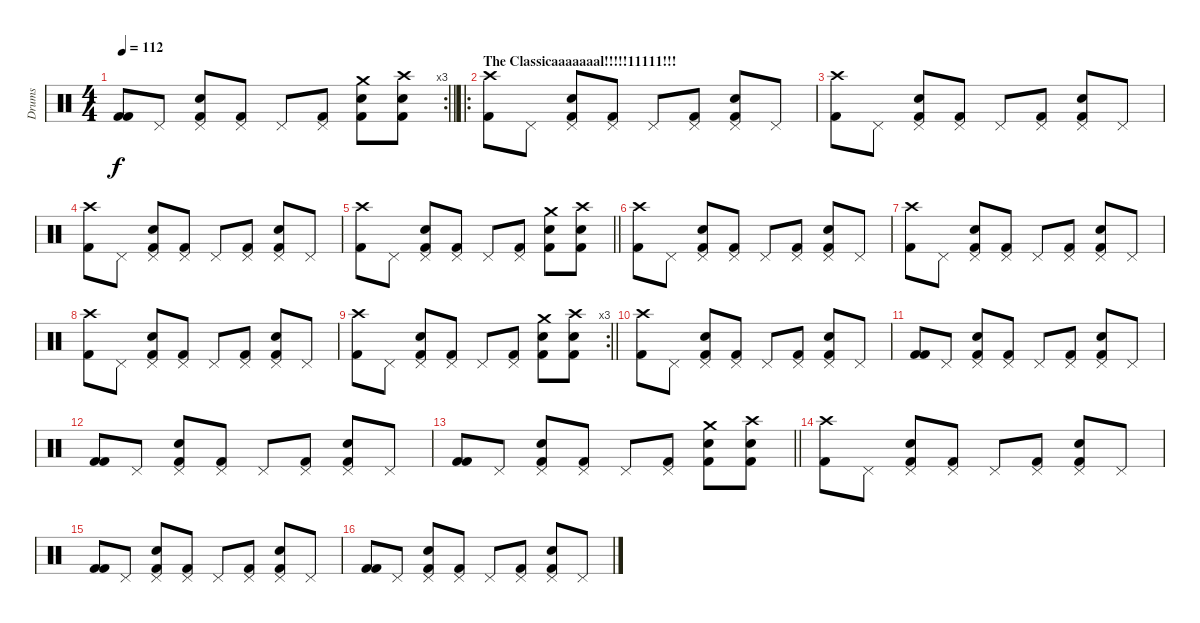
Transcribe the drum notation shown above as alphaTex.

\track ("Drums" "Drums") {instrument percussion}
\staff {score}
\articulation defaults
\rc 3
\ts (4 4)
\tempo 112
\clef neutral
\barLineRight lightlight
\ks c
("Kick (hit) 2" "Kick (hit) 2").8{dy f} "Pedal Hi-Hat (hit)".8 ("Pedal Hi-Hat (hit)" "Snare (hit) 2" "Kick (hit) 2").8 ("Pedal Hi-Hat (hit)" "Kick (hit) 2").8 "Pedal Hi-Hat (hit)".8 ("Pedal Hi-Hat (hit)" "Kick (hit) 2").8 ("Kick (hit) 2" "Snare (hit) 2" "Crash medium (hit)").8 ("Kick (hit) 2" "Snare (hit) 2" "Crash high (hit)").8 |
\ro
\section ("" "The Classicaaaaaaal!!!!!11111!!!")
("Kick (hit) 2" "Crash high (hit)").8 "Pedal Hi-Hat (hit)".8 ("Pedal Hi-Hat (hit)" "Snare (hit) 2" "Kick (hit) 2").8 ("Pedal Hi-Hat (hit)" "Kick (hit) 2").8 "Pedal Hi-Hat (hit)".8 ("Pedal Hi-Hat (hit)" "Kick (hit) 2").8 ("Pedal Hi-Hat (hit)" "Snare (hit) 2" "Kick (hit) 2").8 "Pedal Hi-Hat (hit)".8 |
("Kick (hit) 2" "Crash high (hit)").8 "Pedal Hi-Hat (hit)".8 ("Pedal Hi-Hat (hit)" "Snare (hit) 2" "Kick (hit) 2").8 ("Pedal Hi-Hat (hit)" "Kick (hit) 2").8 "Pedal Hi-Hat (hit)".8 ("Pedal Hi-Hat (hit)" "Kick (hit) 2").8 ("Pedal Hi-Hat (hit)" "Snare (hit) 2" "Kick (hit) 2").8 "Pedal Hi-Hat (hit)".8 |
("Kick (hit) 2" "Crash high (hit)").8 "Pedal Hi-Hat (hit)".8 ("Pedal Hi-Hat (hit)" "Snare (hit) 2" "Kick (hit) 2").8 ("Pedal Hi-Hat (hit)" "Kick (hit) 2").8 "Pedal Hi-Hat (hit)".8 ("Pedal Hi-Hat (hit)" "Kick (hit) 2").8 ("Pedal Hi-Hat (hit)" "Snare (hit) 2" "Kick (hit) 2").8 "Pedal Hi-Hat (hit)".8 |
\barLineRight lightlight
("Kick (hit) 2" "Crash high (hit)").8 "Pedal Hi-Hat (hit)".8 ("Pedal Hi-Hat (hit)" "Snare (hit) 2" "Kick (hit) 2").8 ("Pedal Hi-Hat (hit)" "Kick (hit) 2").8 "Pedal Hi-Hat (hit)".8 ("Pedal Hi-Hat (hit)" "Kick (hit) 2").8 ("Kick (hit) 2" "Snare (hit) 2" "Crash medium (hit)").8 ("Kick (hit) 2" "Snare (hit) 2" "Crash high (hit)").8 |
("Kick (hit) 2" "Crash high (hit)").8 "Pedal Hi-Hat (hit)".8 ("Pedal Hi-Hat (hit)" "Snare (hit) 2" "Kick (hit) 2").8 ("Pedal Hi-Hat (hit)" "Kick (hit) 2").8 "Pedal Hi-Hat (hit)".8 ("Pedal Hi-Hat (hit)" "Kick (hit) 2").8 ("Pedal Hi-Hat (hit)" "Snare (hit) 2" "Kick (hit) 2").8 "Pedal Hi-Hat (hit)".8 |
("Kick (hit) 2" "Crash high (hit)").8 "Pedal Hi-Hat (hit)".8 ("Pedal Hi-Hat (hit)" "Snare (hit) 2" "Kick (hit) 2").8 ("Pedal Hi-Hat (hit)" "Kick (hit) 2").8 "Pedal Hi-Hat (hit)".8 ("Pedal Hi-Hat (hit)" "Kick (hit) 2").8 ("Pedal Hi-Hat (hit)" "Snare (hit) 2" "Kick (hit) 2").8 "Pedal Hi-Hat (hit)".8 |
("Kick (hit) 2" "Crash high (hit)").8 "Pedal Hi-Hat (hit)".8 ("Pedal Hi-Hat (hit)" "Snare (hit) 2" "Kick (hit) 2").8 ("Pedal Hi-Hat (hit)" "Kick (hit) 2").8 "Pedal Hi-Hat (hit)".8 ("Pedal Hi-Hat (hit)" "Kick (hit) 2").8 ("Pedal Hi-Hat (hit)" "Snare (hit) 2" "Kick (hit) 2").8 "Pedal Hi-Hat (hit)".8 |
\rc 3
\barLineRight lightlight
("Kick (hit) 2" "Crash high (hit)").8 "Pedal Hi-Hat (hit)".8 ("Pedal Hi-Hat (hit)" "Snare (hit) 2" "Kick (hit) 2").8 ("Pedal Hi-Hat (hit)" "Kick (hit) 2").8 "Pedal Hi-Hat (hit)".8 ("Pedal Hi-Hat (hit)" "Kick (hit) 2").8 ("Kick (hit) 2" "Snare (hit) 2" "Crash medium (hit)").8 ("Kick (hit) 2" "Snare (hit) 2" "Crash high (hit)").8 |
("Kick (hit) 2" "Crash high (hit)").8 "Pedal Hi-Hat (hit)".8 ("Pedal Hi-Hat (hit)" "Snare (hit) 2" "Kick (hit) 2").8 ("Pedal Hi-Hat (hit)" "Kick (hit) 2").8 "Pedal Hi-Hat (hit)".8 ("Pedal Hi-Hat (hit)" "Kick (hit) 2").8 ("Pedal Hi-Hat (hit)" "Snare (hit) 2" "Kick (hit) 2").8 "Pedal Hi-Hat (hit)".8 |
("Kick (hit) 2" "Kick (hit) 2").8 "Pedal Hi-Hat (hit)".8 ("Pedal Hi-Hat (hit)" "Snare (hit) 2" "Kick (hit) 2").8 ("Pedal Hi-Hat (hit)" "Kick (hit) 2").8 "Pedal Hi-Hat (hit)".8 ("Pedal Hi-Hat (hit)" "Kick (hit) 2").8 ("Pedal Hi-Hat (hit)" "Snare (hit) 2" "Kick (hit) 2").8 "Pedal Hi-Hat (hit)".8 |
("Kick (hit) 2" "Kick (hit) 2").8 "Pedal Hi-Hat (hit)".8 ("Pedal Hi-Hat (hit)" "Snare (hit) 2" "Kick (hit) 2").8 ("Pedal Hi-Hat (hit)" "Kick (hit) 2").8 "Pedal Hi-Hat (hit)".8 ("Pedal Hi-Hat (hit)" "Kick (hit) 2").8 ("Pedal Hi-Hat (hit)" "Snare (hit) 2" "Kick (hit) 2").8 "Pedal Hi-Hat (hit)".8 |
\barLineRight lightlight
("Kick (hit) 2" "Kick (hit) 2").8 "Pedal Hi-Hat (hit)".8 ("Pedal Hi-Hat (hit)" "Snare (hit) 2" "Kick (hit) 2").8 ("Pedal Hi-Hat (hit)" "Kick (hit) 2").8 "Pedal Hi-Hat (hit)".8 ("Pedal Hi-Hat (hit)" "Kick (hit) 2").8 ("Kick (hit) 2" "Snare (hit) 2" "Crash medium (hit)").8 ("Kick (hit) 2" "Snare (hit) 2" "Crash high (hit)").8 |
("Kick (hit) 2" "Crash high (hit)").8 "Pedal Hi-Hat (hit)".8 ("Pedal Hi-Hat (hit)" "Snare (hit) 2" "Kick (hit) 2").8 ("Pedal Hi-Hat (hit)" "Kick (hit) 2").8 "Pedal Hi-Hat (hit)".8 ("Pedal Hi-Hat (hit)" "Kick (hit) 2").8 ("Pedal Hi-Hat (hit)" "Snare (hit) 2" "Kick (hit) 2").8 "Pedal Hi-Hat (hit)".8 |
("Kick (hit) 2" "Kick (hit) 2").8 "Pedal Hi-Hat (hit)".8 ("Pedal Hi-Hat (hit)" "Snare (hit) 2" "Kick (hit) 2").8 ("Pedal Hi-Hat (hit)" "Kick (hit) 2").8 "Pedal Hi-Hat (hit)".8 ("Pedal Hi-Hat (hit)" "Kick (hit) 2").8 ("Pedal Hi-Hat (hit)" "Snare (hit) 2" "Kick (hit) 2").8 "Pedal Hi-Hat (hit)".8 |
("Kick (hit) 2" "Kick (hit) 2").8 "Pedal Hi-Hat (hit)".8 ("Pedal Hi-Hat (hit)" "Snare (hit) 2" "Kick (hit) 2").8 ("Pedal Hi-Hat (hit)" "Kick (hit) 2").8 "Pedal Hi-Hat (hit)".8 ("Pedal Hi-Hat (hit)" "Kick (hit) 2").8 ("Pedal Hi-Hat (hit)" "Snare (hit) 2" "Kick (hit) 2").8 "Pedal Hi-Hat (hit)".8
